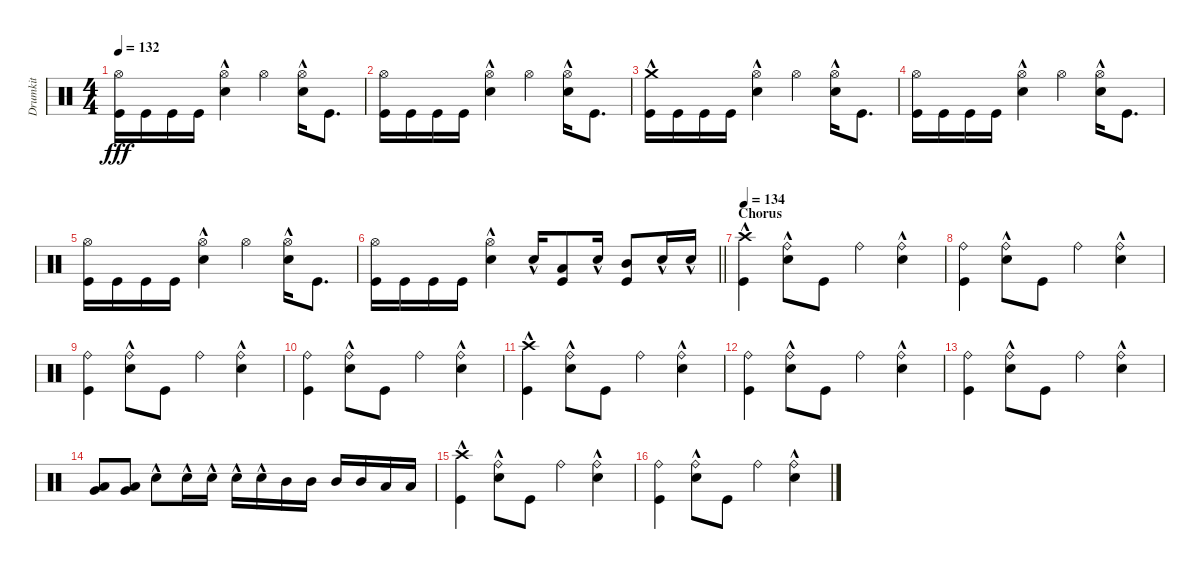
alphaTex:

\track ("Drumkit" "Drumkit") {instrument percussion}
\staff {score}
\articulation defaults
\ts (4 4)
\tempo 132
\clef neutral
\ks c
("Kick (hit)" "Hi-Hat (open)").16{dy fff} "Kick (hit)".16 "Kick (hit)".16 "Kick (hit)".16 ("Snare (hit) 2"{hac} "Hi-Hat (open)").4 "Hi-Hat (open)".4 ("Snare (hit) 2"{hac} "Hi-Hat (open)").16 "Kick (hit)".8{d} |
("Kick (hit)" "Hi-Hat (open)").16 "Kick (hit)".16 "Kick (hit)".16 "Kick (hit)".16 ("Snare (hit) 2"{hac} "Hi-Hat (open)").4 "Hi-Hat (open)".4 ("Snare (hit) 2"{hac} "Hi-Hat (open)").16 "Kick (hit)".8{d} |
("Kick (hit)" "Crash medium (hit)"{hac}).16 "Kick (hit)".16 "Kick (hit)".16 "Kick (hit)".16 ("Snare (hit) 2"{hac} "Hi-Hat (open)").4 "Hi-Hat (open)".4 ("Snare (hit) 2"{hac} "Hi-Hat (open)").16 "Kick (hit)".8{d} |
("Kick (hit)" "Hi-Hat (open)").16 "Kick (hit)".16 "Kick (hit)".16 "Kick (hit)".16 ("Snare (hit) 2"{hac} "Hi-Hat (open)").4 "Hi-Hat (open)".4 ("Snare (hit) 2"{hac} "Hi-Hat (open)").16 "Kick (hit)".8{d} |
("Kick (hit)" "Hi-Hat (open)").16 "Kick (hit)".16 "Kick (hit)".16 "Kick (hit)".16 ("Snare (hit) 2"{hac} "Hi-Hat (open)").4 "Hi-Hat (open)".4 ("Snare (hit) 2"{hac} "Hi-Hat (open)").16 "Kick (hit)".8{d} |
\barLineRight lightlight
("Kick (hit)" "Hi-Hat (open)").16 "Kick (hit)".16 "Kick (hit)".16 "Kick (hit)".16 ("Snare (hit) 2"{hac} "Hi-Hat (open)").4 "Snare (hit) 2"{hac}.16 ("Kick (hit)" "Low Tom (hit)").8 "Snare (hit) 2"{hac}.16 ("Kick (hit)" "Mid Tom (hit)").8 "Snare (hit) 2"{hac}.16 "Snare (hit) 2"{hac}.16 |
\section ("" "Chorus")
\tempo 134
("Kick (hit)" "Crash high (hit)"{hac}).4 ("Snare (hit) 2"{hac} "Ride (bell)").8 "Kick (hit)".8 "Ride (bell)".4 ("Snare (hit) 2"{hac} "Ride (bell)").4 |
("Kick (hit)" "Ride (bell)").4 ("Snare (hit) 2"{hac} "Ride (bell)").8 "Kick (hit)".8 "Ride (bell)".4 ("Snare (hit) 2"{hac} "Ride (bell)").4 |
("Kick (hit)" "Ride (bell)").4 ("Snare (hit) 2"{hac} "Ride (bell)").8 "Kick (hit)".8 "Ride (bell)".4 ("Snare (hit) 2"{hac} "Ride (bell)").4 |
("Kick (hit)" "Ride (bell)").4 ("Snare (hit) 2"{hac} "Ride (bell)").8 "Kick (hit)".8 "Ride (bell)".4 ("Snare (hit) 2"{hac} "Ride (bell)").4 |
("Kick (hit)" "Crash high (hit)"{hac}).4 ("Snare (hit) 2"{hac} "Ride (bell)").8 "Kick (hit)".8 "Ride (bell)".4 ("Snare (hit) 2"{hac} "Ride (bell)").4 |
("Kick (hit)" "Ride (bell)").4 ("Snare (hit) 2"{hac} "Ride (bell)").8 "Kick (hit)".8 "Ride (bell)".4 ("Snare (hit) 2"{hac} "Ride (bell)").4 |
("Kick (hit)" "Ride (bell)").4 ("Snare (hit) 2"{hac} "Ride (bell)").8 "Kick (hit)".8 "Ride (bell)".4 ("Snare (hit) 2"{hac} "Ride (bell)").4 |
("Low Tom (hit)" "Very Low Tom (hit)").8 ("Very Low Tom (hit)" "Low Tom (hit)").8 "Snare (hit) 2"{hac}.8 "Snare (hit) 2"{hac}.16 "Snare (hit) 2"{hac}.16 "Snare (hit) 2"{hac}.16 "Snare (hit) 2"{hac}.16 "Mid Tom (hit)".16 "Mid Tom (hit)".16 "Mid Tom (hit)".16 "Mid Tom (hit)".16 "Low Tom (hit)".16 "Low Tom (hit)".16 |
("Kick (hit)" "Crash high (hit)"{hac}).4 ("Snare (hit) 2"{hac} "Ride (bell)").8 "Kick (hit)".8 "Ride (bell)".4 ("Snare (hit) 2"{hac} "Ride (bell)").4 |
("Kick (hit)" "Ride (bell)").4 ("Snare (hit) 2"{hac} "Ride (bell)").8 "Kick (hit)".8 "Ride (bell)".4 ("Snare (hit) 2"{hac} "Ride (bell)").4
